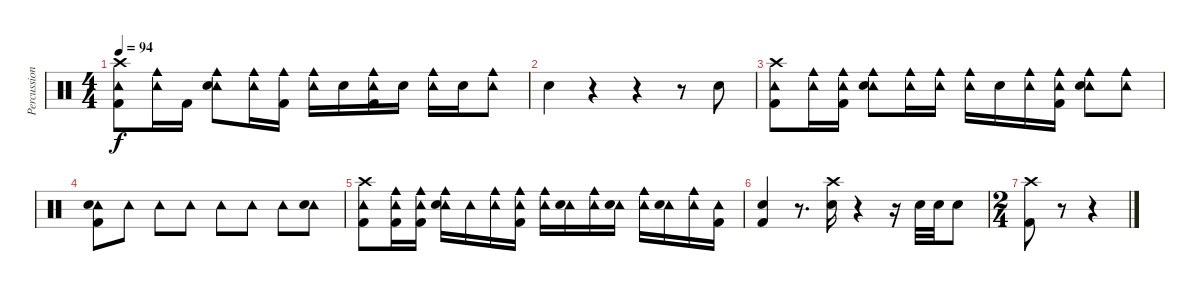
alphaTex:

\track ("Percussion" "Percussion") {instrument percussion}
\staff {score}
\articulation defaults
\ts (4 4)
\tempo 94
\clef neutral
\ks c
("Crash high (hit)" "Tambourine (hit)" "Kick (hit) 2").8{dy f} ("Tambourine (hit)" "Cowbell medium (hit)").16 "Kick (hit) 2".16 ("Tambourine (hit)" "Cowbell medium (hit)" "Electric Snare (hit)").8 ("Tambourine (hit)" "Cowbell medium (hit)").16 ("Cowbell medium (hit)" "Kick (hit) 2").16 ("Tambourine (hit)" "Cowbell medium (hit)").16 "Electric Snare (hit)".16 ("Tambourine (hit)" "Cowbell medium (hit)" "Kick (hit) 2").16 "Electric Snare (hit)".16 ("Tambourine (hit)" "Cowbell medium (hit)").16 "Electric Snare (hit)".16 ("Tambourine (hit)" "Cowbell medium (hit)").8 |
"Electric Snare (hit)".4 r.4 r.4 r.8 "Electric Snare (hit)".8 |
("Crash high (hit)" "Tambourine (hit)" "Kick (hit) 2").8 ("Tambourine (hit)" "Cowbell medium (hit)").16 ("Tambourine (hit)" "Cowbell medium (hit)" "Kick (hit) 2").16 ("Tambourine (hit)" "Cowbell medium (hit)" "Electric Snare (hit)").8 ("Tambourine (hit)" "Cowbell medium (hit)").16 ("Tambourine (hit)" "Cowbell medium (hit)").16 ("Tambourine (hit)" "Cowbell medium (hit)").16 "Electric Snare (hit)".16 ("Tambourine (hit)" "Cowbell medium (hit)").16 ("Tambourine (hit)" "Cowbell medium (hit)" "Kick (hit) 2").16 ("Tambourine (hit)" "Cowbell medium (hit)" "Electric Snare (hit)").8 ("Tambourine (hit)" "Cowbell medium (hit)").8 |
("Tambourine (hit)" "Electric Snare (hit)" "Kick (hit) 2").8 "Tambourine (hit)".8 "Tambourine (hit)".8 "Tambourine (hit)".8 "Tambourine (hit)".8 "Tambourine (hit)".8 "Tambourine (hit)".8 ("Tambourine (hit)" "Electric Snare (hit)").8 |
("Crash high (hit)" "Tambourine (hit)" "Kick (hit) 2").8 ("Tambourine (hit)" "Cowbell medium (hit)" "Kick (hit) 2").16 ("Tambourine (hit)" "Cowbell medium (hit)" "Kick (hit) 2").16 ("Tambourine (hit)" "Cowbell medium (hit)" "Electric Snare (hit)").16 "Tambourine (hit)".16 ("Tambourine (hit)" "Cowbell medium (hit)").16 ("Tambourine (hit)" "Cowbell medium (hit)" "Kick (hit) 2").16 ("Tambourine (hit)" "Cowbell medium (hit)").16 ("Tambourine (hit)" "Electric Snare (hit)").16 ("Tambourine (hit)" "Cowbell medium (hit)").16 ("Tambourine (hit)" "Electric Snare (hit)").16 ("Tambourine (hit)" "Cowbell medium (hit)").16 ("Tambourine (hit)" "Electric Snare (hit)").16 ("Tambourine (hit)" "Cowbell medium (hit)").16 ("Tambourine (hit)" "Kick (hit) 2").16 |
("Electric Snare (hit)" "Kick (hit) 2").4 r.8{d} ("Crash high (hit)" "Electric Snare (hit)").16 r.4 r.16 "Electric Snare (hit)".32 "Electric Snare (hit)".32 "Electric Snare (hit)".8 |
\ts (2 4)
("Crash high (hit)" "Kick (hit) 2").8 r.8 r.4
